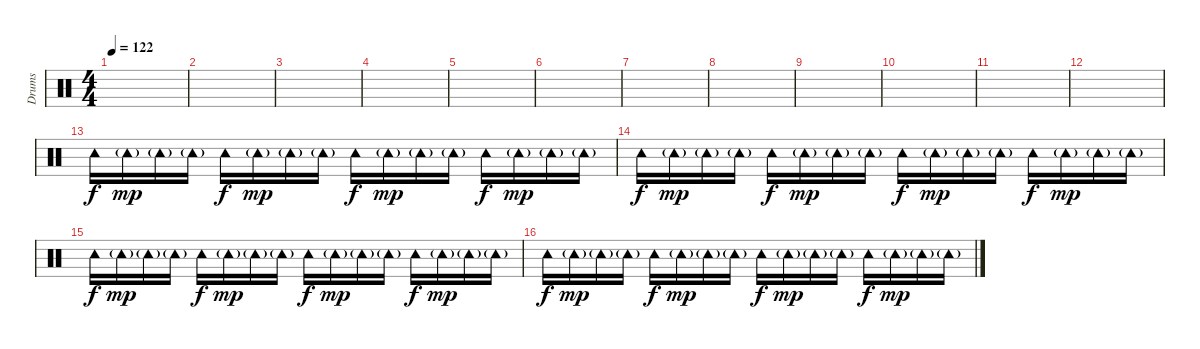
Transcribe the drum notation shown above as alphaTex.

\track ("Drums" "Drums") {instrument percussion}
\staff {score}
\articulation defaults
\ts (4 4)
\tempo 122
\clef neutral
\ks c
|
|
|
|
|
|
|
|
|
|
|
|
"Tambourine (hit)".16{dy f} "Tambourine (hit)"{g}.16{dy mp} "Tambourine (hit)"{g}.16 "Tambourine (hit)"{g}.16 "Tambourine (hit)".16{dy f} "Tambourine (hit)"{g}.16{dy mp} "Tambourine (hit)"{g}.16 "Tambourine (hit)"{g}.16 "Tambourine (hit)".16{dy f} "Tambourine (hit)"{g}.16{dy mp} "Tambourine (hit)"{g}.16 "Tambourine (hit)"{g}.16 "Tambourine (hit)".16{dy f} "Tambourine (hit)"{g}.16{dy mp} "Tambourine (hit)"{g}.16 "Tambourine (hit)"{g}.16 |
"Tambourine (hit)".16{dy f} "Tambourine (hit)"{g}.16{dy mp} "Tambourine (hit)"{g}.16 "Tambourine (hit)"{g}.16 "Tambourine (hit)".16{dy f} "Tambourine (hit)"{g}.16{dy mp} "Tambourine (hit)"{g}.16 "Tambourine (hit)"{g}.16 "Tambourine (hit)".16{dy f} "Tambourine (hit)"{g}.16{dy mp} "Tambourine (hit)"{g}.16 "Tambourine (hit)"{g}.16 "Tambourine (hit)".16{dy f} "Tambourine (hit)"{g}.16{dy mp} "Tambourine (hit)"{g}.16 "Tambourine (hit)"{g}.16 |
"Tambourine (hit)".16{dy f} "Tambourine (hit)"{g}.16{dy mp} "Tambourine (hit)"{g}.16 "Tambourine (hit)"{g}.16 "Tambourine (hit)".16{dy f} "Tambourine (hit)"{g}.16{dy mp} "Tambourine (hit)"{g}.16 "Tambourine (hit)"{g}.16 "Tambourine (hit)".16{dy f} "Tambourine (hit)"{g}.16{dy mp} "Tambourine (hit)"{g}.16 "Tambourine (hit)"{g}.16 "Tambourine (hit)".16{dy f} "Tambourine (hit)"{g}.16{dy mp} "Tambourine (hit)"{g}.16 "Tambourine (hit)"{g}.16 |
"Tambourine (hit)".16{dy f} "Tambourine (hit)"{g}.16{dy mp} "Tambourine (hit)"{g}.16 "Tambourine (hit)"{g}.16 "Tambourine (hit)".16{dy f} "Tambourine (hit)"{g}.16{dy mp} "Tambourine (hit)"{g}.16 "Tambourine (hit)"{g}.16 "Tambourine (hit)".16{dy f} "Tambourine (hit)"{g}.16{dy mp} "Tambourine (hit)"{g}.16 "Tambourine (hit)"{g}.16 "Tambourine (hit)".16{dy f} "Tambourine (hit)"{g}.16{dy mp} "Tambourine (hit)"{g}.16 "Tambourine (hit)"{g}.16
